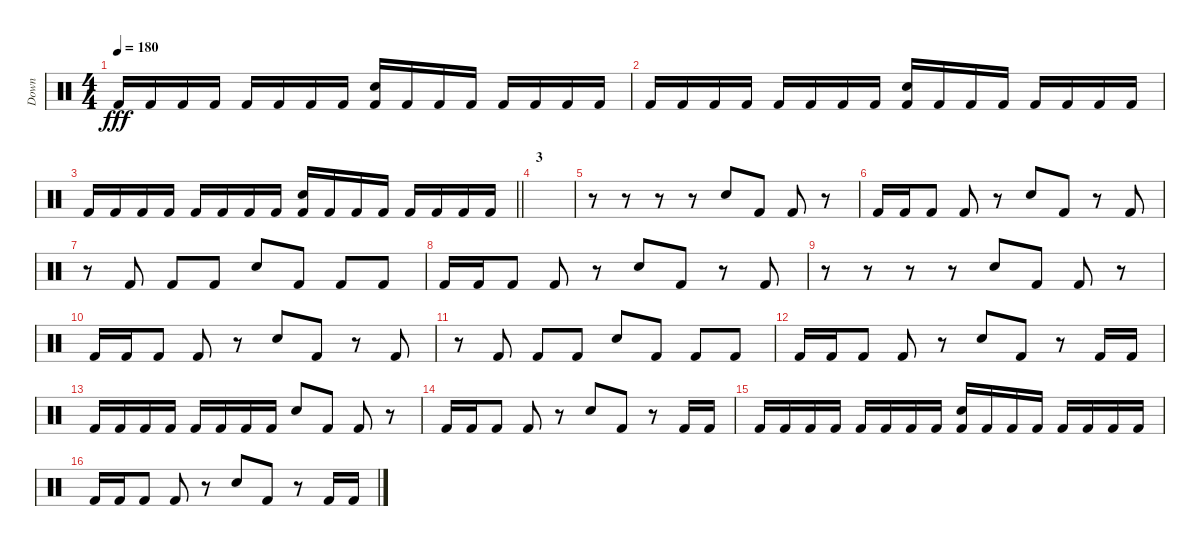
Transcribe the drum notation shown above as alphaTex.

\track ("Down" "Down") {instrument percussion}
\staff {score}
\articulation defaults
\ts (4 4)
\tempo 180
\clef neutral
\ks c "Kick (hit) 2".16{dy fff} "Kick (hit) 2".16 "Kick (hit) 2".16 "Kick (hit) 2".16 "Kick (hit) 2".16 "Kick (hit) 2".16 "Kick (hit) 2".16 "Kick (hit) 2".16
("Electric Snare (hit)" "Kick (hit) 2").16 "Kick (hit) 2".16 "Kick (hit) 2".16 "Kick (hit) 2".16 "Kick (hit) 2".16 "Kick (hit) 2".16 "Kick (hit) 2".16 "Kick (hit) 2".16 |
"Kick (hit) 2".16 "Kick (hit) 2".16 "Kick (hit) 2".16 "Kick (hit) 2".16 "Kick (hit) 2".16 "Kick (hit) 2".16 "Kick (hit) 2".16 "Kick (hit) 2".16 ("Electric Snare (hit)" "Kick (hit) 2").16 "Kick (hit) 2".16 "Kick (hit) 2".16 "Kick (hit) 2".16 "Kick (hit) 2".16 "Kick (hit) 2".16 "Kick (hit) 2".16 "Kick (hit) 2".16 |
\barLineRight lightlight "Kick (hit) 2".16 "Kick (hit) 2".16 "Kick (hit) 2".16 "Kick (hit) 2".16 "Kick (hit) 2".16 "Kick (hit) 2".16 "Kick (hit) 2".16 "Kick (hit) 2".16
("Electric Snare (hit)" "Kick (hit) 2").16 "Kick (hit) 2".16 "Kick (hit) 2".16 "Kick (hit) 2".16 "Kick (hit) 2".16 "Kick (hit) 2".16 "Kick (hit) 2".16 "Kick (hit) 2".16 |
\section ("" "3")
|
r.8 r.8 r.8 r.8 "Electric Snare (hit)".8 "Kick (hit) 2".8 "Kick (hit) 2".8 r.8 |
"Kick (hit) 2".16 "Kick (hit) 2".16 "Kick (hit) 2".8 "Kick (hit) 2".8 r.8 "Electric Snare (hit)".8 "Kick (hit) 2".8 r.8 "Kick (hit) 2".8 |
r.8 "Kick (hit) 2".8 "Kick (hit) 2".8 "Kick (hit) 2".8 "Electric Snare (hit)".8 "Kick (hit) 2".8 "Kick (hit) 2".8 "Kick (hit) 2".8 |
"Kick (hit) 2".16 "Kick (hit) 2".16 "Kick (hit) 2".8 "Kick (hit) 2".8 r.8 "Electric Snare (hit)".8 "Kick (hit) 2".8 r.8 "Kick (hit) 2".8 |
r.8 r.8 r.8 r.8 "Electric Snare (hit)".8 "Kick (hit) 2".8 "Kick (hit) 2".8 r.8 |
"Kick (hit) 2".16 "Kick (hit) 2".16 "Kick (hit) 2".8 "Kick (hit) 2".8 r.8 "Electric Snare (hit)".8 "Kick (hit) 2".8 r.8 "Kick (hit) 2".8 |
r.8 "Kick (hit) 2".8 "Kick (hit) 2".8 "Kick (hit) 2".8 "Electric Snare (hit)".8 "Kick (hit) 2".8 "Kick (hit) 2".8 "Kick (hit) 2".8 |
"Kick (hit) 2".16 "Kick (hit) 2".16 "Kick (hit) 2".8 "Kick (hit) 2".8 r.8 "Electric Snare (hit)".8 "Kick (hit) 2".8 r.8 "Kick (hit) 2".16 "Kick (hit) 2".16 |
"Kick (hit) 2".16 "Kick (hit) 2".16 "Kick (hit) 2".16 "Kick (hit) 2".16 "Kick (hit) 2".16 "Kick (hit) 2".16 "Kick (hit) 2".16 "Kick (hit) 2".16 "Electric Snare (hit)".8 "Kick (hit) 2".8 "Kick (hit) 2".8 r.8 |
"Kick (hit) 2".16 "Kick (hit) 2".16 "Kick (hit) 2".8 "Kick (hit) 2".8 r.8 "Electric Snare (hit)".8 "Kick (hit) 2".8 r.8 "Kick (hit) 2".16 "Kick (hit) 2".16 |
"Kick (hit) 2".16 "Kick (hit) 2".16 "Kick (hit) 2".16 "Kick (hit) 2".16 "Kick (hit) 2".16 "Kick (hit) 2".16 "Kick (hit) 2".16 "Kick (hit) 2".16 ("Electric Snare (hit)" "Kick (hit) 2").16 "Kick (hit) 2".16 "Kick (hit) 2".16 "Kick (hit) 2".16 "Kick (hit) 2".16 "Kick (hit) 2".16 "Kick (hit) 2".16 "Kick (hit) 2".16 |
"Kick (hit) 2".16 "Kick (hit) 2".16 "Kick (hit) 2".8 "Kick (hit) 2".8 r.8 "Electric Snare (hit)".8 "Kick (hit) 2".8 r.8 "Kick (hit) 2".16 "Kick (hit) 2".16
